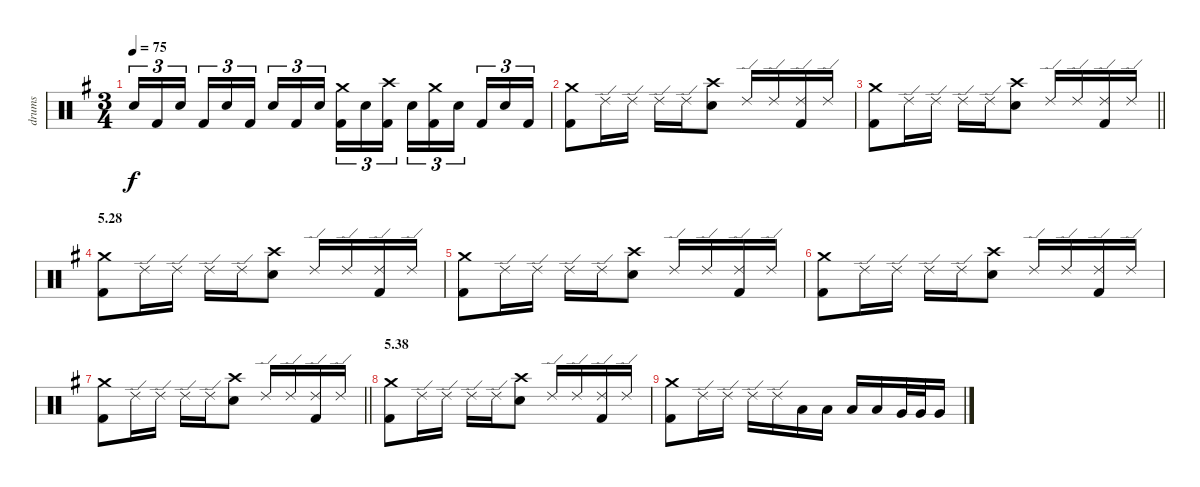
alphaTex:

\track ("drums" "drums") {instrument percussion}
\staff {score}
\articulation defaults
\ts (3 4)
\tempo 75
\clef neutral
\ks g "Electric Snare (hit)".16{tu (3 2) dy f} "Kick (hit) 2".16{tu (3 2)} "Electric Snare (hit)".16{tu (3 2) beam splitsecondary} "Kick (hit) 2".16{tu (3 2)} "Electric Snare (hit)".16{tu (3 2)} "Kick (hit) 2".16{tu (3 2)} "Electric Snare (hit)".16{tu (3 2)} "Kick (hit) 2".16{tu (3 2)} "Electric Snare (hit)".16{tu (3 2) beam splitsecondary}
("Crash medium (hit)" "Kick (hit) 2").16{tu (3 2)} "Electric Snare (hit)".16{tu (3 2)} ("Crash high (hit)" "Kick (hit) 2").16{tu (3 2)} "Electric Snare (hit)".16{tu (3 2)} ("Crash medium (hit)" "Kick (hit) 2").16{tu (3 2)} "Electric Snare (hit)".16{tu (3 2) beam splitsecondary} "Kick (hit) 2".16{tu (3 2)} "Electric Snare (hit)".16{tu (3 2)} "Kick (hit) 2".16{tu (3 2)} |
("Crash medium (hit)" "Kick (hit) 2").8 "Ride (edge) 2".16 "Ride (edge) 2".16 "Ride (edge) 2".16 "Ride (edge) 2".16 ("Crash high (hit)" "Electric Snare (hit)").8 "Ride (edge) 2".16 "Ride (edge) 2".16 ("Ride (edge) 2" "Kick (hit) 2").16 "Ride (edge) 2".16 |
\barLineRight lightlight
("Crash medium (hit)" "Kick (hit) 2").8 "Ride (edge) 2".16 "Ride (edge) 2".16 "Ride (edge) 2".16 "Ride (edge) 2".16 ("Crash high (hit)" "Electric Snare (hit)").8 "Ride (edge) 2".16 "Ride (edge) 2".16 ("Ride (edge) 2" "Kick (hit) 2").16 "Ride (edge) 2".16 |
\section ("" "5.28")
("Crash medium (hit)" "Kick (hit) 2").8 "Ride (edge) 2".16 "Ride (edge) 2".16 "Ride (edge) 2".16 "Ride (edge) 2".16 ("Crash high (hit)" "Electric Snare (hit)").8 "Ride (edge) 2".16 "Ride (edge) 2".16 ("Ride (edge) 2" "Kick (hit) 2").16 "Ride (edge) 2".16 |
("Crash medium (hit)" "Kick (hit) 2").8 "Ride (edge) 2".16 "Ride (edge) 2".16 "Ride (edge) 2".16 "Ride (edge) 2".16 ("Crash high (hit)" "Electric Snare (hit)").8 "Ride (edge) 2".16 "Ride (edge) 2".16 ("Ride (edge) 2" "Kick (hit) 2").16 "Ride (edge) 2".16 |
("Crash medium (hit)" "Kick (hit) 2").8 "Ride (edge) 2".16 "Ride (edge) 2".16 "Ride (edge) 2".16 "Ride (edge) 2".16 ("Crash high (hit)" "Electric Snare (hit)").8 "Ride (edge) 2".16 "Ride (edge) 2".16 ("Ride (edge) 2" "Kick (hit) 2").16 "Ride (edge) 2".16 |
\barLineRight lightlight
("Crash medium (hit)" "Kick (hit) 2").8 "Ride (edge) 2".16 "Ride (edge) 2".16 "Ride (edge) 2".16 "Ride (edge) 2".16 ("Crash high (hit)" "Electric Snare (hit)").8 "Ride (edge) 2".16 "Ride (edge) 2".16 ("Ride (edge) 2" "Kick (hit) 2").16 "Ride (edge) 2".16 |
\section ("" "5.38")
("Crash medium (hit)" "Kick (hit) 2").8 "Ride (edge) 2".16 "Ride (edge) 2".16 "Ride (edge) 2".16 "Ride (edge) 2".16 ("Crash high (hit)" "Electric Snare (hit)").8 "Ride (edge) 2".16 "Ride (edge) 2".16 ("Ride (edge) 2" "Kick (hit) 2").16 "Ride (edge) 2".16 |
("Crash medium (hit)" "Kick (hit) 2").8 "Ride (edge) 2".16 "Ride (edge) 2".16 "Ride (edge) 2".16 "Ride (edge) 2".16 "Low Tom (hit)".16 "Low Tom (hit)".16 "Low Tom (hit)".16 "Low Tom (hit)".16 "Very Low Tom (hit)".32 "Very Low Tom (hit)".32 "Very Low Tom (hit)".16
